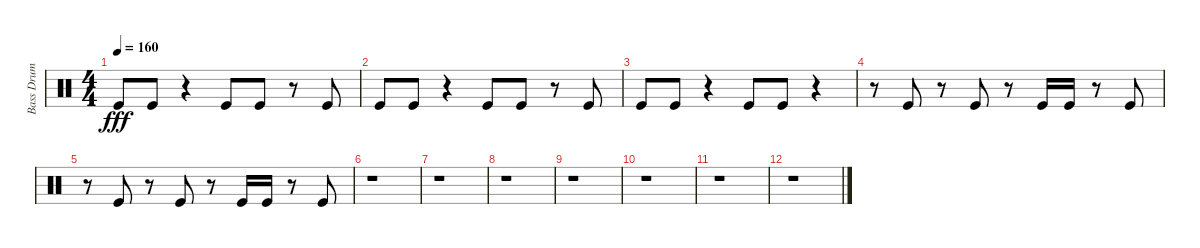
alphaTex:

\track ("Bass Drum" "Bass Drum") {instrument percussion}
\staff {score}
\articulation defaults
\ts (4 4)
\tempo 160
\clef neutral
\ks c "Kick (hit)".8{dy fff} "Kick (hit)".8
r.4 "Kick (hit)".8 "Kick (hit)".8 r.8 "Kick (hit)".8 |
"Kick (hit)".8 "Kick (hit)".8 r.4 "Kick (hit)".8 "Kick (hit)".8 r.8 "Kick (hit)".8 |
"Kick (hit)".8 "Kick (hit)".8 r.4 "Kick (hit)".8 "Kick (hit)".8 r.4 |
r.8 "Kick (hit)".8 r.8 "Kick (hit)".8 r.8 "Kick (hit)".16 "Kick (hit)".16 r.8 "Kick (hit)".8 |
r.8 "Kick (hit)".8 r.8 "Kick (hit)".8 r.8 "Kick (hit)".16 "Kick (hit)".16 r.8 "Kick (hit)".8 |
r.1 |
r.1 |
r.1 |
r.1 |
r.1 |
r.1 |
r.1
